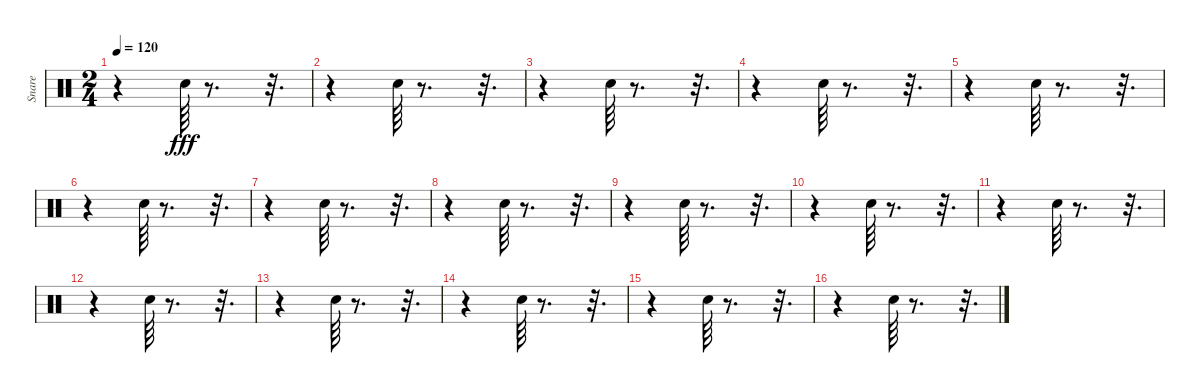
\track ("Snare" "Snare") {instrument percussion}
\staff {score}
\articulation defaults
\ts (2 4)
\tempo 120
\clef neutral
\ks c
r.4{dy fff} "Snare (hit) 2".64 r.8{d} r.32{d} |
r.4 "Snare (hit) 2".64 r.8{d} r.32{d} |
r.4 "Snare (hit) 2".64 r.8{d} r.32{d} |
r.4 "Snare (hit) 2".64 r.8{d} r.32{d} |
r.4 "Snare (hit) 2".64 r.8{d} r.32{d} |
r.4 "Snare (hit) 2".64 r.8{d} r.32{d} |
r.4 "Snare (hit) 2".64 r.8{d} r.32{d} |
r.4 "Snare (hit) 2".64 r.8{d} r.32{d} |
r.4 "Snare (hit) 2".64 r.8{d} r.32{d} |
r.4 "Snare (hit) 2".64 r.8{d} r.32{d} |
r.4 "Snare (hit) 2".64 r.8{d} r.32{d} |
r.4 "Snare (hit) 2".64 r.8{d} r.32{d} |
r.4 "Snare (hit) 2".64 r.8{d} r.32{d} |
r.4 "Snare (hit) 2".64 r.8{d} r.32{d} |
r.4 "Snare (hit) 2".64 r.8{d} r.32{d} |
r.4 "Snare (hit) 2".64 r.8{d} r.32{d}
